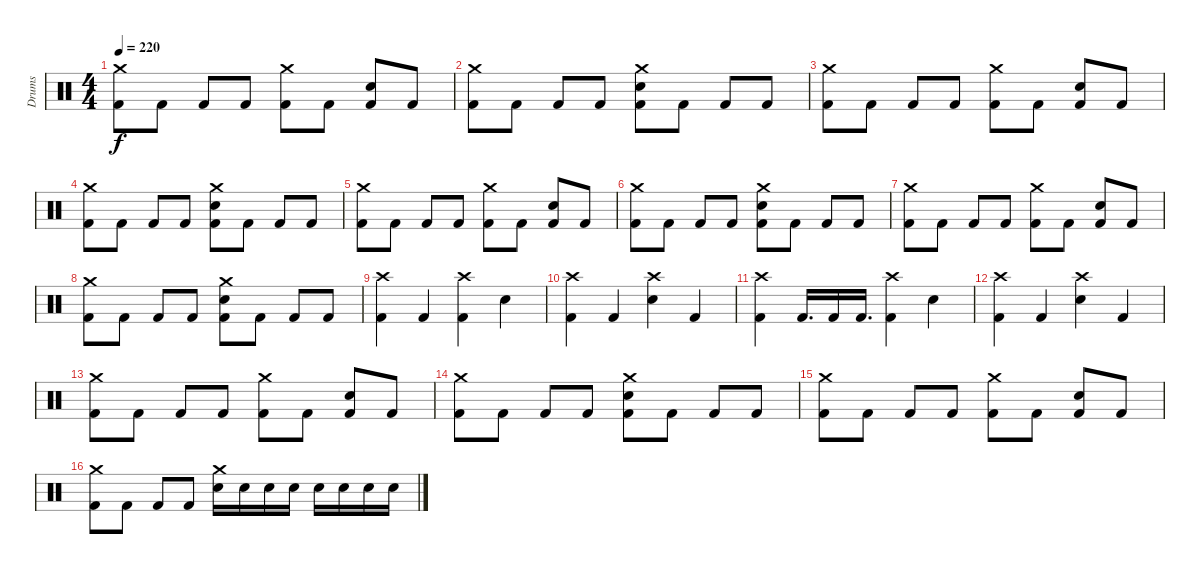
\track ("Drums" "Drums") {instrument percussion}
\staff {score}
\articulation defaults
\ts (4 4)
\tempo 220
\clef neutral
\ks c
("Crash medium (hit)" "Kick (hit) 2").8{dy f} "Kick (hit) 2".8 "Kick (hit) 2".8 "Kick (hit) 2".8 ("Crash medium (hit)" "Kick (hit) 2").8 "Kick (hit) 2".8 ("Electric Snare (hit)" "Kick (hit) 2").8 "Kick (hit) 2".8 |
("Crash medium (hit)" "Kick (hit) 2").8 "Kick (hit) 2".8 "Kick (hit) 2".8 "Kick (hit) 2".8 ("Crash medium (hit)" "Electric Snare (hit)" "Kick (hit) 2").8 "Kick (hit) 2".8 "Kick (hit) 2".8 "Kick (hit) 2".8 |
("Crash medium (hit)" "Kick (hit) 2").8 "Kick (hit) 2".8 "Kick (hit) 2".8 "Kick (hit) 2".8 ("Crash medium (hit)" "Kick (hit) 2").8 "Kick (hit) 2".8 ("Electric Snare (hit)" "Kick (hit) 2").8 "Kick (hit) 2".8 |
("Crash medium (hit)" "Kick (hit) 2").8 "Kick (hit) 2".8 "Kick (hit) 2".8 "Kick (hit) 2".8 ("Crash medium (hit)" "Electric Snare (hit)" "Kick (hit) 2").8 "Kick (hit) 2".8 "Kick (hit) 2".8 "Kick (hit) 2".8 |
("Crash medium (hit)" "Kick (hit) 2").8 "Kick (hit) 2".8 "Kick (hit) 2".8 "Kick (hit) 2".8 ("Crash medium (hit)" "Kick (hit) 2").8 "Kick (hit) 2".8 ("Electric Snare (hit)" "Kick (hit) 2").8 "Kick (hit) 2".8 |
("Crash medium (hit)" "Kick (hit) 2").8 "Kick (hit) 2".8 "Kick (hit) 2".8 "Kick (hit) 2".8 ("Crash medium (hit)" "Electric Snare (hit)" "Kick (hit) 2").8 "Kick (hit) 2".8 "Kick (hit) 2".8 "Kick (hit) 2".8 |
("Crash medium (hit)" "Kick (hit) 2").8 "Kick (hit) 2".8 "Kick (hit) 2".8 "Kick (hit) 2".8 ("Crash medium (hit)" "Kick (hit) 2").8 "Kick (hit) 2".8 ("Electric Snare (hit)" "Kick (hit) 2").8 "Kick (hit) 2".8 |
("Crash medium (hit)" "Kick (hit) 2").8 "Kick (hit) 2".8 "Kick (hit) 2".8 "Kick (hit) 2".8 ("Crash medium (hit)" "Electric Snare (hit)" "Kick (hit) 2").8 "Kick (hit) 2".8 "Kick (hit) 2".8 "Kick (hit) 2".8 |
("Crash high (hit)" "Kick (hit) 2").4 "Kick (hit) 2".4 ("Crash high (hit)" "Kick (hit) 2").4 "Electric Snare (hit)".4 |
("Crash high (hit)" "Kick (hit) 2").4 "Kick (hit) 2".4 ("Crash high (hit)" "Electric Snare (hit)").4 "Kick (hit) 2".4 |
("Crash high (hit)" "Kick (hit) 2").4 "Kick (hit) 2".16{d} "Kick (hit) 2".16 "Kick (hit) 2".16{d} ("Crash high (hit)" "Kick (hit) 2").4 "Electric Snare (hit)".4 |
("Crash high (hit)" "Kick (hit) 2").4 "Kick (hit) 2".4 ("Crash high (hit)" "Electric Snare (hit)").4 "Kick (hit) 2".4 |
("Crash medium (hit)" "Kick (hit) 2").8 "Kick (hit) 2".8 "Kick (hit) 2".8 "Kick (hit) 2".8 ("Crash medium (hit)" "Kick (hit) 2").8 "Kick (hit) 2".8 ("Electric Snare (hit)" "Kick (hit) 2").8 "Kick (hit) 2".8 |
("Crash medium (hit)" "Kick (hit) 2").8 "Kick (hit) 2".8 "Kick (hit) 2".8 "Kick (hit) 2".8 ("Crash medium (hit)" "Electric Snare (hit)" "Kick (hit) 2").8 "Kick (hit) 2".8 "Kick (hit) 2".8 "Kick (hit) 2".8 |
("Crash medium (hit)" "Kick (hit) 2").8 "Kick (hit) 2".8 "Kick (hit) 2".8 "Kick (hit) 2".8 ("Crash medium (hit)" "Kick (hit) 2").8 "Kick (hit) 2".8 ("Electric Snare (hit)" "Kick (hit) 2").8 "Kick (hit) 2".8 |
("Crash medium (hit)" "Kick (hit) 2").8 "Kick (hit) 2".8 "Kick (hit) 2".8 "Kick (hit) 2".8 ("Crash medium (hit)" "Electric Snare (hit)").16 "Electric Snare (hit)".16 "Electric Snare (hit)".16 "Electric Snare (hit)".16 "Electric Snare (hit)".16 "Electric Snare (hit)".16 "Electric Snare (hit)".16 "Electric Snare (hit)".16
